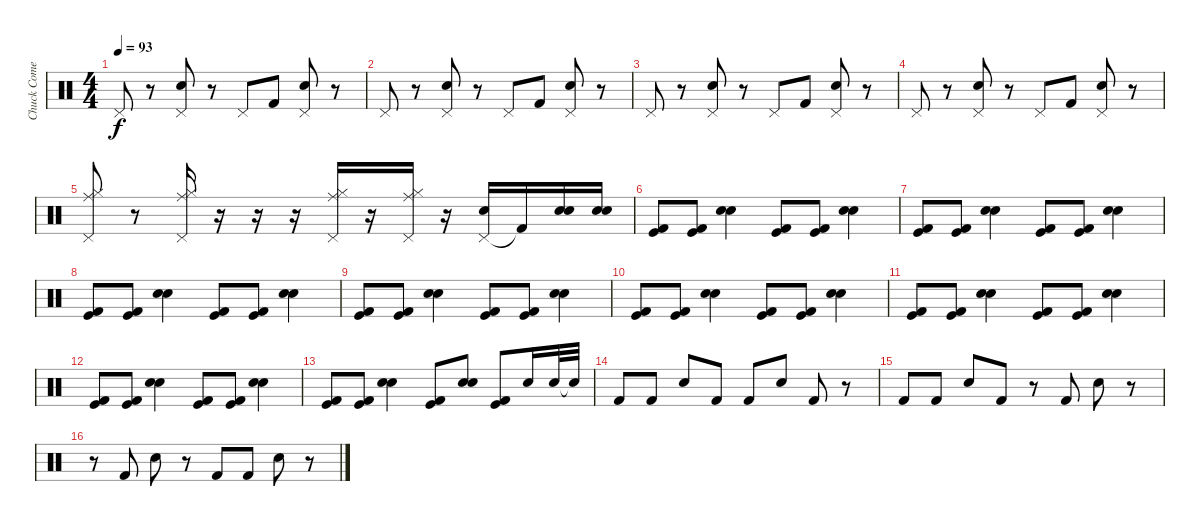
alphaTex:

\track ("Chuck Comeau" "Chuck Come") {instrument percussion}
\staff {score}
\articulation defaults
\ts (4 4)
\tempo 93
\clef neutral
\ks c "Pedal Hi-Hat (hit)".8{dy f}
r.8 ("Pedal Hi-Hat (hit)" "Electric Snare (hit)").8 r.8 "Pedal Hi-Hat (hit)".8 "Kick (hit) 2".8 ("Pedal Hi-Hat (hit)" "Electric Snare (hit)").8 r.8 |
"Pedal Hi-Hat (hit)".8 r.8 ("Pedal Hi-Hat (hit)" "Electric Snare (hit)").8 r.8 "Pedal Hi-Hat (hit)".8 "Kick (hit) 2".8 ("Pedal Hi-Hat (hit)" "Electric Snare (hit)").8 r.8 |
"Pedal Hi-Hat (hit)".8 r.8 ("Pedal Hi-Hat (hit)" "Electric Snare (hit)").8 r.8 "Pedal Hi-Hat (hit)".8 "Kick (hit) 2".8 ("Pedal Hi-Hat (hit)" "Electric Snare (hit)").8 r.8 |
"Pedal Hi-Hat (hit)".8 r.8 ("Pedal Hi-Hat (hit)" "Electric Snare (hit)").8 r.8 "Pedal Hi-Hat (hit)".8 "Kick (hit) 2".8 ("Pedal Hi-Hat (hit)" "Electric Snare (hit)").8 r.8 |
("Pedal Hi-Hat (hit)" "Hi-Hat (closed)" "Ride (middle)").8 r.8 ("Pedal Hi-Hat (hit)" "Hi-Hat (closed)" "Ride (middle)").16 r.16 r.16 r.16 ("Pedal Hi-Hat (hit)" "Hi-Hat (closed)" "Ride (middle)").16 r.16 ("Pedal Hi-Hat (hit)" "Hi-Hat (closed)" "Ride (middle)").16 r.16 ("Pedal Hi-Hat (hit)" "Electric Snare (hit)").16 "Kick (hit) 2"{t}.16 ("Electric Snare (hit)" "Electric Snare (hit)").16 ("Electric Snare (hit)" "Electric Snare (hit)").16 |
("Kick (hit) 2" "Kick (hit)").8 ("Kick (hit) 2" "Kick (hit)").8 ("Electric Snare (hit)" "Snare (hit) 2").4 ("Kick (hit) 2" "Kick (hit)").8 ("Kick (hit) 2" "Kick (hit)").8 ("Electric Snare (hit)" "Snare (hit) 2").4 |
("Kick (hit) 2" "Kick (hit)").8 ("Kick (hit) 2" "Kick (hit)").8 ("Electric Snare (hit)" "Snare (hit) 2").4 ("Kick (hit) 2" "Kick (hit)").8 ("Kick (hit) 2" "Kick (hit)").8 ("Electric Snare (hit)" "Snare (hit) 2").4 |
("Kick (hit) 2" "Kick (hit)").8 ("Kick (hit) 2" "Kick (hit)").8 ("Electric Snare (hit)" "Snare (hit) 2").4 ("Kick (hit) 2" "Kick (hit)").8 ("Kick (hit) 2" "Kick (hit)").8 ("Electric Snare (hit)" "Snare (hit) 2").4 |
("Kick (hit) 2" "Kick (hit)").8 ("Kick (hit) 2" "Kick (hit)").8 ("Electric Snare (hit)" "Snare (hit) 2").4 ("Kick (hit) 2" "Kick (hit)").8 ("Kick (hit) 2" "Kick (hit)").8 ("Electric Snare (hit)" "Snare (hit) 2").4 |
("Kick (hit) 2" "Kick (hit)").8 ("Kick (hit) 2" "Kick (hit)").8 ("Electric Snare (hit)" "Snare (hit) 2").4 ("Kick (hit) 2" "Kick (hit)").8 ("Kick (hit) 2" "Kick (hit)").8 ("Electric Snare (hit)" "Snare (hit) 2").4 |
("Kick (hit) 2" "Kick (hit)").8 ("Kick (hit) 2" "Kick (hit)").8 ("Electric Snare (hit)" "Snare (hit) 2").4 ("Kick (hit) 2" "Kick (hit)").8 ("Kick (hit) 2" "Kick (hit)").8 ("Electric Snare (hit)" "Snare (hit) 2").4 |
("Kick (hit) 2" "Kick (hit)").8 ("Kick (hit) 2" "Kick (hit)").8 ("Electric Snare (hit)" "Snare (hit) 2").4 ("Kick (hit) 2" "Kick (hit)").8 ("Kick (hit) 2" "Kick (hit)").8 ("Electric Snare (hit)" "Snare (hit) 2").4 |
("Kick (hit) 2" "Kick (hit)").8 ("Kick (hit) 2" "Kick (hit)").8 ("Electric Snare (hit)" "Snare (hit) 2").4 ("Kick (hit)" "Kick (hit) 2").8 ("Electric Snare (hit)" "Snare (hit) 2").8 ("Kick (hit)" "Kick (hit) 2").8 "Electric Snare (hit)".16 "Electric Snare (hit)".32 "Electric Snare (hit)"{t}.32 |
"Kick (hit) 2".8 "Kick (hit) 2".8 "Electric Snare (hit)".8 "Kick (hit) 2".8 "Kick (hit) 2".8 "Electric Snare (hit)".8 "Kick (hit) 2".8 r.8 |
"Kick (hit) 2".8 "Kick (hit) 2".8 "Electric Snare (hit)".8 "Kick (hit) 2".8 r.8 "Kick (hit) 2".8 "Electric Snare (hit)".8 r.8 |
r.8 "Kick (hit) 2".8 "Electric Snare (hit)".8 r.8 "Kick (hit) 2".8 "Kick (hit) 2".8 "Electric Snare (hit)".8 r.8
